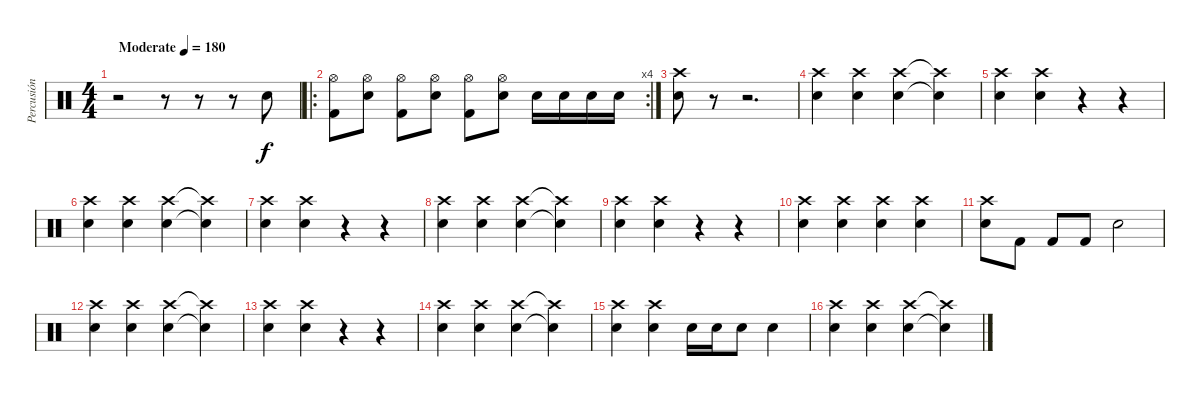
\track ("Percusión" "Percusión") {instrument percussion}
\staff {score}
\articulation defaults
\ts (4 4)
\tempo (180 "Moderate")
\clef neutral
\ks c
r.2{dy f} r.8 r.8 r.8 "Electric Snare (hit)".8 |
\ro
\rc 4
("Hi-Hat (open)" "Kick (hit) 2").8 ("Hi-Hat (open)" "Electric Snare (hit)").8 ("Hi-Hat (open)" "Kick (hit) 2").8 ("Hi-Hat (open)" "Electric Snare (hit)").8 ("Hi-Hat (open)" "Kick (hit) 2").8 ("Hi-Hat (open)" "Electric Snare (hit)").8 "Electric Snare (hit)".16 "Electric Snare (hit)".16 "Electric Snare (hit)".16 "Electric Snare (hit)".16 |
("Crash high (hit)" "Electric Snare (hit)").8 r.8 r.2{d} |
("Crash high (hit)" "Electric Snare (hit)").4 ("Crash high (hit)" "Electric Snare (hit)").4 ("Crash high (hit)" "Electric Snare (hit)").4 ("Crash high (hit)"{t} "Electric Snare (hit)"{t}).4 |
("Crash high (hit)" "Electric Snare (hit)").4 ("Crash high (hit)" "Electric Snare (hit)").4 r.4 r.4 |
("Crash high (hit)" "Electric Snare (hit)").4 ("Crash high (hit)" "Electric Snare (hit)").4 ("Crash high (hit)" "Electric Snare (hit)").4 ("Crash high (hit)"{t} "Electric Snare (hit)"{t}).4 |
("Crash high (hit)" "Electric Snare (hit)").4 ("Crash high (hit)" "Electric Snare (hit)").4 r.4 r.4 |
("Crash high (hit)" "Electric Snare (hit)").4 ("Crash high (hit)" "Electric Snare (hit)").4 ("Crash high (hit)" "Electric Snare (hit)").4 ("Crash high (hit)"{t} "Electric Snare (hit)"{t}).4 |
("Crash high (hit)" "Electric Snare (hit)").4 ("Crash high (hit)" "Electric Snare (hit)").4 r.4 r.4 |
("Crash high (hit)" "Electric Snare (hit)").4 ("Crash high (hit)" "Electric Snare (hit)").4 ("Crash high (hit)" "Electric Snare (hit)").4 ("Crash high (hit)" "Electric Snare (hit)").4 |
("Crash high (hit)" "Electric Snare (hit)").8 "Kick (hit) 2".8 "Kick (hit) 2".8 "Kick (hit) 2".8 "Electric Snare (hit)".2 |
("Crash high (hit)" "Electric Snare (hit)").4 ("Crash high (hit)" "Electric Snare (hit)").4 ("Crash high (hit)" "Electric Snare (hit)").4 ("Crash high (hit)"{t} "Electric Snare (hit)"{t}).4 |
("Crash high (hit)" "Electric Snare (hit)").4 ("Crash high (hit)" "Electric Snare (hit)").4 r.4 r.4 |
("Crash high (hit)" "Electric Snare (hit)").4 ("Crash high (hit)" "Electric Snare (hit)").4 ("Crash high (hit)" "Electric Snare (hit)").4 ("Crash high (hit)"{t} "Electric Snare (hit)"{t}).4 |
("Crash high (hit)" "Electric Snare (hit)").4 ("Crash high (hit)" "Electric Snare (hit)").4 "Electric Snare (hit)".16 "Electric Snare (hit)".16 "Electric Snare (hit)".8 "Electric Snare (hit)".4 |
("Crash high (hit)" "Electric Snare (hit)").4 ("Crash high (hit)" "Electric Snare (hit)").4 ("Crash high (hit)" "Electric Snare (hit)").4 ("Crash high (hit)"{t} "Electric Snare (hit)"{t}).4
